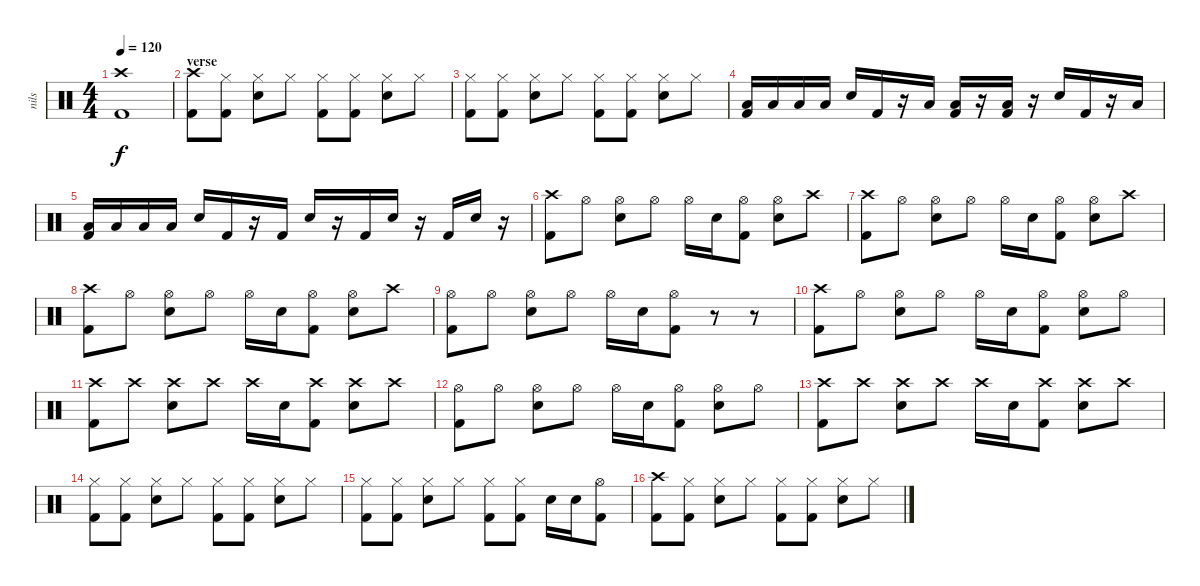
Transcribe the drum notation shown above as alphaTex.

\track ("nils" "nils") {instrument percussion}
\staff {score}
\articulation defaults
\ts (4 4)
\tempo 120
\clef neutral
\ks c
("Kick (hit) 2" "Crash high (hit)").1{dy f} |
\section ("" "verse")
("Crash high (hit)" "Kick (hit) 2").8 ("Hi-Hat (closed)" "Kick (hit) 2").8 ("Hi-Hat (closed)" "Snare (hit) 2").8 "Hi-Hat (closed)".8 ("Hi-Hat (closed)" "Kick (hit) 2").8 ("Hi-Hat (closed)" "Kick (hit) 2").8 ("Hi-Hat (closed)" "Snare (hit) 2").8 "Hi-Hat (closed)".8 |
("Hi-Hat (closed)" "Kick (hit) 2").8 ("Hi-Hat (closed)" "Kick (hit) 2").8 ("Hi-Hat (closed)" "Snare (hit) 2").8 "Hi-Hat (closed)".8 ("Hi-Hat (closed)" "Kick (hit) 2").8 ("Hi-Hat (closed)" "Kick (hit) 2").8 ("Hi-Hat (closed)" "Snare (hit) 2").8 "Hi-Hat (closed)".8 |
("Low Floor Tom (hit)" "Kick (hit) 2").16 "Low Floor Tom (hit)".16 "Low Floor Tom (hit)".16 "Low Floor Tom (hit)".16 "Snare (hit) 2".16 "Kick (hit) 2".16 r.16 "Low Tom (hit)".16 ("Low Floor Tom (hit)" "Kick (hit) 2").16 r.16 ("Low Floor Tom (hit)" "Kick (hit) 2").16 r.16 "Snare (hit) 2".16 "Kick (hit) 2".16 r.16 "Low Tom (hit)".16 |
("Low Floor Tom (hit)" "Kick (hit) 2").16 "Low Floor Tom (hit)".16 "Low Floor Tom (hit)".16 "Low Floor Tom (hit)".16 "Snare (hit) 2".16 "Kick (hit) 2".16 r.16 "Kick (hit) 2".16 "Snare (hit) 2".16 r.16 "Kick (hit) 2".16 "Snare (hit) 2".16 r.16 "Kick (hit) 2".16 "Snare (hit) 2".16 r.16 |
("Crash high (hit)" "Kick (hit) 2").8 "Hi-Hat (open)".8 ("Hi-Hat (open)" "Snare (hit) 2").8 "Hi-Hat (open)".8 "Hi-Hat (open)".16 "Snare (hit) 2".16 ("Hi-Hat (open)" "Kick (hit) 2").8 ("Hi-Hat (open)" "Snare (hit) 2").8 "Crash high (hit)".8 |
("Crash high (hit)" "Kick (hit) 2").8 "Hi-Hat (open)".8 ("Hi-Hat (open)" "Snare (hit) 2").8 "Hi-Hat (open)".8 "Hi-Hat (open)".16 "Snare (hit) 2".16 ("Hi-Hat (open)" "Kick (hit) 2").8 ("Hi-Hat (open)" "Snare (hit) 2").8 "Crash high (hit)".8 |
("Crash high (hit)" "Kick (hit) 2").8 "Hi-Hat (open)".8 ("Hi-Hat (open)" "Snare (hit) 2").8 "Hi-Hat (open)".8 "Hi-Hat (open)".16 "Snare (hit) 2".16 ("Hi-Hat (open)" "Kick (hit) 2").8 ("Hi-Hat (open)" "Snare (hit) 2").8 "Crash high (hit)".8 |
("Hi-Hat (open)" "Kick (hit) 2").8 "Hi-Hat (open)".8 ("Hi-Hat (open)" "Snare (hit) 2").8 "Hi-Hat (open)".8 "Hi-Hat (open)".16 "Snare (hit) 2".16 ("Hi-Hat (open)" "Kick (hit) 2").8 r.8 r.8 |
("Crash high (hit)" "Kick (hit) 2").8 "Hi-Hat (open)".8 ("Hi-Hat (open)" "Snare (hit) 2").8 "Hi-Hat (open)".8 "Hi-Hat (open)".16 "Snare (hit) 2".16 ("Hi-Hat (open)" "Kick (hit) 2").8 ("Hi-Hat (open)" "Snare (hit) 2").8 "Hi-Hat (open)".8 |
("Crash high (hit)" "Kick (hit) 2").8 "Crash high (hit)".8 ("Crash high (hit)" "Snare (hit) 2").8 "Crash high (hit)".8 "Crash high (hit)".16 "Snare (hit) 2".16 ("Crash high (hit)" "Kick (hit) 2").8 ("Crash high (hit)" "Snare (hit) 2").8 "Crash high (hit)".8 |
("Hi-Hat (open)" "Kick (hit) 2").8 "Hi-Hat (open)".8 ("Hi-Hat (open)" "Snare (hit) 2").8 "Hi-Hat (open)".8 "Hi-Hat (open)".16 "Snare (hit) 2".16 ("Hi-Hat (open)" "Kick (hit) 2").8 ("Hi-Hat (open)" "Snare (hit) 2").8 "Hi-Hat (open)".8 |
("Crash high (hit)" "Kick (hit) 2").8 "Crash high (hit)".8 ("Crash high (hit)" "Snare (hit) 2").8 "Crash high (hit)".8 "Crash high (hit)".16 "Snare (hit) 2".16 ("Crash high (hit)" "Kick (hit) 2").8 ("Crash high (hit)" "Snare (hit) 2").8 "Crash high (hit)".8 |
("Hi-Hat (closed)" "Kick (hit) 2").8 ("Hi-Hat (closed)" "Kick (hit) 2").8 ("Hi-Hat (closed)" "Snare (hit) 2").8 "Hi-Hat (closed)".8 ("Hi-Hat (closed)" "Kick (hit) 2").8 ("Hi-Hat (closed)" "Kick (hit) 2").8 ("Hi-Hat (closed)" "Snare (hit) 2").8 "Hi-Hat (closed)".8 |
("Hi-Hat (closed)" "Kick (hit) 2").8 ("Hi-Hat (closed)" "Kick (hit) 2").8 ("Hi-Hat (closed)" "Snare (hit) 2").8 "Hi-Hat (closed)".8 ("Hi-Hat (closed)" "Kick (hit) 2").8 ("Hi-Hat (closed)" "Kick (hit) 2").8 "Snare (hit) 2".16 "Snare (hit) 2".16 ("Hi-Hat (open)" "Kick (hit) 2").8 |
("Crash high (hit)" "Kick (hit) 2").8 ("Hi-Hat (closed)" "Kick (hit) 2").8 ("Hi-Hat (closed)" "Snare (hit) 2").8 "Hi-Hat (closed)".8 ("Hi-Hat (closed)" "Kick (hit) 2").8 ("Hi-Hat (closed)" "Kick (hit) 2").8 ("Hi-Hat (closed)" "Snare (hit) 2").8 "Hi-Hat (closed)".8
